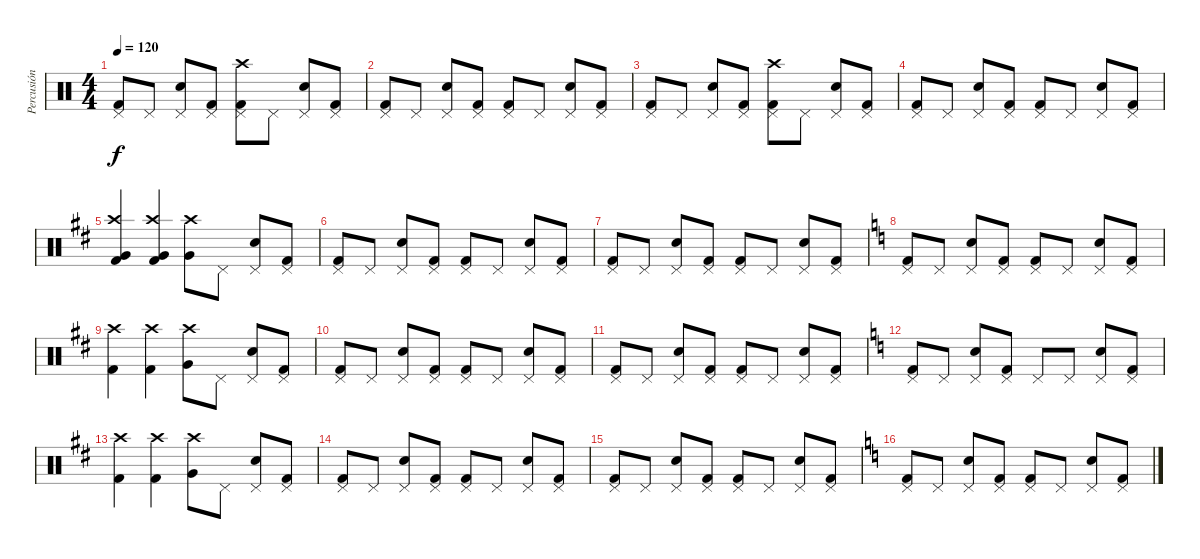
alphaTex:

\track ("Percusión" "Percusión") {instrument percussion}
\staff {score}
\articulation defaults
\ts (4 4)
\tempo 120
\clef neutral
\ks c
("Pedal Hi-Hat (hit)" "Kick (hit) 2").8{dy f} "Pedal Hi-Hat (hit)".8 ("Pedal Hi-Hat (hit)" "Electric Snare (hit)").8 ("Pedal Hi-Hat (hit)" "Kick (hit) 2").8 ("Pedal Hi-Hat (hit)" "Crash high (hit)" "Kick (hit) 2").8 "Pedal Hi-Hat (hit)".8 ("Pedal Hi-Hat (hit)" "Electric Snare (hit)").8 ("Pedal Hi-Hat (hit)" "Kick (hit) 2").8 |
("Pedal Hi-Hat (hit)" "Kick (hit) 2").8 "Pedal Hi-Hat (hit)".8 ("Pedal Hi-Hat (hit)" "Electric Snare (hit)").8 ("Pedal Hi-Hat (hit)" "Kick (hit) 2").8 ("Pedal Hi-Hat (hit)" "Kick (hit) 2").8 "Pedal Hi-Hat (hit)".8 ("Pedal Hi-Hat (hit)" "Electric Snare (hit)").8 ("Pedal Hi-Hat (hit)" "Kick (hit) 2").8 |
("Pedal Hi-Hat (hit)" "Kick (hit) 2").8 "Pedal Hi-Hat (hit)".8 ("Pedal Hi-Hat (hit)" "Electric Snare (hit)").8 ("Pedal Hi-Hat (hit)" "Kick (hit) 2").8 ("Pedal Hi-Hat (hit)" "Crash high (hit)" "Kick (hit) 2").8 "Pedal Hi-Hat (hit)".8 ("Pedal Hi-Hat (hit)" "Electric Snare (hit)").8 ("Pedal Hi-Hat (hit)" "Kick (hit) 2").8 |
("Pedal Hi-Hat (hit)" "Kick (hit) 2").8 "Pedal Hi-Hat (hit)".8 ("Pedal Hi-Hat (hit)" "Electric Snare (hit)").8 ("Pedal Hi-Hat (hit)" "Kick (hit) 2").8 ("Pedal Hi-Hat (hit)" "Kick (hit) 2").8 "Pedal Hi-Hat (hit)".8 ("Pedal Hi-Hat (hit)" "Electric Snare (hit)").8 ("Pedal Hi-Hat (hit)" "Kick (hit) 2").8 |
\ks d
("Very Low Tom (hit)" "Crash high (hit)" "Kick (hit) 2").4 ("Very Low Tom (hit)" "Crash high (hit)" "Kick (hit) 2").4 ("Very Low Tom (hit)" "Crash high (hit)").8 "Pedal Hi-Hat (hit)".8 ("Pedal Hi-Hat (hit)" "Electric Snare (hit)").8 ("Pedal Hi-Hat (hit)" "Kick (hit) 2").8 |
("Pedal Hi-Hat (hit)" "Kick (hit) 2").8 "Pedal Hi-Hat (hit)".8 ("Pedal Hi-Hat (hit)" "Electric Snare (hit)").8 ("Pedal Hi-Hat (hit)" "Kick (hit) 2").8 ("Pedal Hi-Hat (hit)" "Kick (hit) 2").8 "Pedal Hi-Hat (hit)".8 ("Pedal Hi-Hat (hit)" "Electric Snare (hit)").8 ("Pedal Hi-Hat (hit)" "Kick (hit) 2").8 |
("Pedal Hi-Hat (hit)" "Kick (hit) 2").8 "Pedal Hi-Hat (hit)".8 ("Pedal Hi-Hat (hit)" "Electric Snare (hit)").8 ("Pedal Hi-Hat (hit)" "Kick (hit) 2").8 ("Pedal Hi-Hat (hit)" "Kick (hit) 2").8 "Pedal Hi-Hat (hit)".8 ("Pedal Hi-Hat (hit)" "Electric Snare (hit)").8 ("Pedal Hi-Hat (hit)" "Kick (hit) 2").8 |
\ks c
("Pedal Hi-Hat (hit)" "Kick (hit) 2").8 "Pedal Hi-Hat (hit)".8 ("Pedal Hi-Hat (hit)" "Electric Snare (hit)").8 ("Pedal Hi-Hat (hit)" "Kick (hit) 2").8 ("Pedal Hi-Hat (hit)" "Kick (hit) 2").8 "Pedal Hi-Hat (hit)".8 ("Pedal Hi-Hat (hit)" "Electric Snare (hit)").8 ("Pedal Hi-Hat (hit)" "Kick (hit) 2").8 |
\ks d
("Crash high (hit)" "Kick (hit) 2").4 ("Crash high (hit)" "Kick (hit) 2").4 ("Very Low Tom (hit)" "Crash high (hit)").8 "Pedal Hi-Hat (hit)".8 ("Pedal Hi-Hat (hit)" "Electric Snare (hit)").8 ("Pedal Hi-Hat (hit)" "Kick (hit) 2").8 |
("Pedal Hi-Hat (hit)" "Kick (hit) 2").8 "Pedal Hi-Hat (hit)".8 ("Pedal Hi-Hat (hit)" "Electric Snare (hit)").8 ("Pedal Hi-Hat (hit)" "Kick (hit) 2").8 ("Pedal Hi-Hat (hit)" "Kick (hit) 2").8 "Pedal Hi-Hat (hit)".8 ("Pedal Hi-Hat (hit)" "Electric Snare (hit)").8 ("Pedal Hi-Hat (hit)" "Kick (hit) 2").8 |
("Pedal Hi-Hat (hit)" "Kick (hit) 2").8 "Pedal Hi-Hat (hit)".8 ("Pedal Hi-Hat (hit)" "Electric Snare (hit)").8 ("Pedal Hi-Hat (hit)" "Kick (hit) 2").8 ("Pedal Hi-Hat (hit)" "Kick (hit) 2").8 "Pedal Hi-Hat (hit)".8 ("Pedal Hi-Hat (hit)" "Electric Snare (hit)").8 ("Pedal Hi-Hat (hit)" "Kick (hit) 2").8 |
\ks c
("Pedal Hi-Hat (hit)" "Kick (hit) 2").8 "Pedal Hi-Hat (hit)".8 ("Pedal Hi-Hat (hit)" "Electric Snare (hit)").8 ("Pedal Hi-Hat (hit)" "Kick (hit) 2").8 "Pedal Hi-Hat (hit)".8 "Pedal Hi-Hat (hit)".8 ("Pedal Hi-Hat (hit)" "Electric Snare (hit)").8 ("Pedal Hi-Hat (hit)" "Kick (hit) 2").8 |
\ks d
("Crash high (hit)" "Kick (hit) 2").4 ("Crash high (hit)" "Kick (hit) 2").4 ("Very Low Tom (hit)" "Crash high (hit)").8 "Pedal Hi-Hat (hit)".8 ("Pedal Hi-Hat (hit)" "Electric Snare (hit)").8 ("Pedal Hi-Hat (hit)" "Kick (hit) 2").8 |
("Pedal Hi-Hat (hit)" "Kick (hit) 2").8 "Pedal Hi-Hat (hit)".8 ("Pedal Hi-Hat (hit)" "Electric Snare (hit)").8 ("Pedal Hi-Hat (hit)" "Kick (hit) 2").8 ("Pedal Hi-Hat (hit)" "Kick (hit) 2").8 "Pedal Hi-Hat (hit)".8 ("Pedal Hi-Hat (hit)" "Electric Snare (hit)").8 ("Pedal Hi-Hat (hit)" "Kick (hit) 2").8 |
("Pedal Hi-Hat (hit)" "Kick (hit) 2").8 "Pedal Hi-Hat (hit)".8 ("Pedal Hi-Hat (hit)" "Electric Snare (hit)").8 ("Pedal Hi-Hat (hit)" "Kick (hit) 2").8 ("Pedal Hi-Hat (hit)" "Kick (hit) 2").8 "Pedal Hi-Hat (hit)".8 ("Pedal Hi-Hat (hit)" "Electric Snare (hit)").8 ("Pedal Hi-Hat (hit)" "Kick (hit) 2").8 |
\ks c
("Pedal Hi-Hat (hit)" "Kick (hit) 2").8 "Pedal Hi-Hat (hit)".8 ("Pedal Hi-Hat (hit)" "Electric Snare (hit)").8 ("Pedal Hi-Hat (hit)" "Kick (hit) 2").8 ("Pedal Hi-Hat (hit)" "Kick (hit) 2").8 "Pedal Hi-Hat (hit)".8 ("Pedal Hi-Hat (hit)" "Electric Snare (hit)").8 ("Pedal Hi-Hat (hit)" "Kick (hit) 2").8
